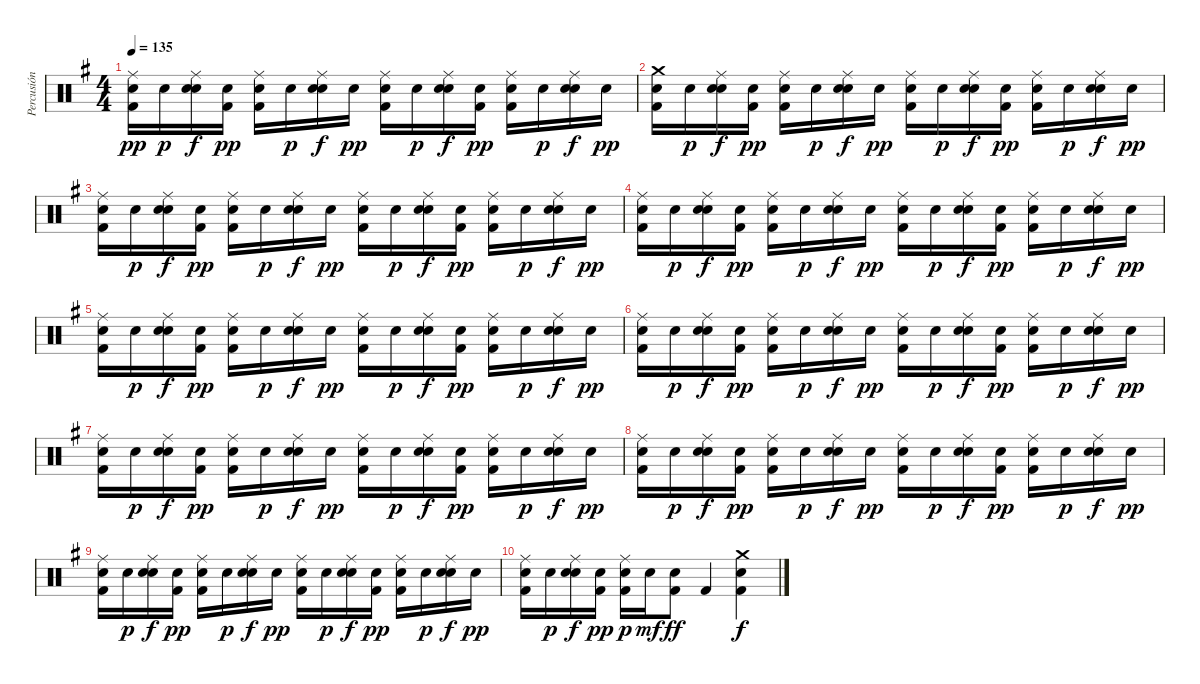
\track ("Percusión" "Percusión") {instrument percussion}
\staff {score}
\articulation defaults
\ts (4 4)
\tempo 135
\clef neutral
\ks g
("Ride (middle)" "Snare (hit) 2" "Kick (hit) 2").16{dy pp} "Snare (hit) 2".16{dy p} ("Ride (middle)" "Hand Clap (hit)" "Snare (hit) 2").16{dy f} ("Snare (hit) 2" "Kick (hit) 2").16{dy pp} ("Ride (middle)" "Snare (hit) 2" "Kick (hit) 2").16 "Snare (hit) 2".16{dy p} ("Ride (middle)" "Hand Clap (hit)" "Snare (hit) 2").16{dy f} "Snare (hit) 2".16{dy pp} ("Ride (middle)" "Snare (hit) 2" "Kick (hit) 2").16 "Snare (hit) 2".16{dy p} ("Ride (middle)" "Hand Clap (hit)" "Snare (hit) 2").16{dy f} ("Snare (hit) 2" "Kick (hit) 2").16{dy pp} ("Ride (middle)" "Snare (hit) 2" "Kick (hit) 2").16 "Snare (hit) 2".16{dy p} ("Ride (middle)" "Hand Clap (hit)" "Snare (hit) 2").16{dy f} "Snare (hit) 2".16{dy pp} |
("Crash medium (hit)" "Snare (hit) 2" "Kick (hit) 2").16 "Snare (hit) 2".16{dy p} ("Ride (middle)" "Hand Clap (hit)" "Snare (hit) 2").16{dy f} ("Snare (hit) 2" "Kick (hit) 2").16{dy pp} ("Ride (middle)" "Snare (hit) 2" "Kick (hit) 2").16 "Snare (hit) 2".16{dy p} ("Ride (middle)" "Hand Clap (hit)" "Snare (hit) 2").16{dy f} "Snare (hit) 2".16{dy pp} ("Ride (middle)" "Snare (hit) 2" "Kick (hit) 2").16 "Snare (hit) 2".16{dy p} ("Ride (middle)" "Hand Clap (hit)" "Snare (hit) 2").16{dy f} ("Snare (hit) 2" "Kick (hit) 2").16{dy pp} ("Ride (middle)" "Snare (hit) 2" "Kick (hit) 2").16 "Snare (hit) 2".16{dy p} ("Ride (middle)" "Hand Clap (hit)" "Snare (hit) 2").16{dy f} "Snare (hit) 2".16{dy pp} |
("Ride (middle)" "Snare (hit) 2" "Kick (hit) 2").16 "Snare (hit) 2".16{dy p} ("Ride (middle)" "Hand Clap (hit)" "Snare (hit) 2").16{dy f} ("Snare (hit) 2" "Kick (hit) 2").16{dy pp} ("Ride (middle)" "Snare (hit) 2" "Kick (hit) 2").16 "Snare (hit) 2".16{dy p} ("Ride (middle)" "Hand Clap (hit)" "Snare (hit) 2").16{dy f} "Snare (hit) 2".16{dy pp} ("Ride (middle)" "Snare (hit) 2" "Kick (hit) 2").16 "Snare (hit) 2".16{dy p} ("Ride (middle)" "Hand Clap (hit)" "Snare (hit) 2").16{dy f} ("Snare (hit) 2" "Kick (hit) 2").16{dy pp} ("Ride (middle)" "Snare (hit) 2" "Kick (hit) 2").16 "Snare (hit) 2".16{dy p} ("Ride (middle)" "Hand Clap (hit)" "Snare (hit) 2").16{dy f} "Snare (hit) 2".16{dy pp} |
("Ride (middle)" "Snare (hit) 2" "Kick (hit) 2").16 "Snare (hit) 2".16{dy p} ("Ride (middle)" "Hand Clap (hit)" "Snare (hit) 2").16{dy f} ("Snare (hit) 2" "Kick (hit) 2").16{dy pp} ("Ride (middle)" "Snare (hit) 2" "Kick (hit) 2").16 "Snare (hit) 2".16{dy p} ("Ride (middle)" "Hand Clap (hit)" "Snare (hit) 2").16{dy f} "Snare (hit) 2".16{dy pp} ("Ride (middle)" "Snare (hit) 2" "Kick (hit) 2").16 "Snare (hit) 2".16{dy p} ("Ride (middle)" "Hand Clap (hit)" "Snare (hit) 2").16{dy f} ("Snare (hit) 2" "Kick (hit) 2").16{dy pp} ("Ride (middle)" "Snare (hit) 2" "Kick (hit) 2").16 "Snare (hit) 2".16{dy p} ("Ride (middle)" "Hand Clap (hit)" "Snare (hit) 2").16{dy f} "Snare (hit) 2".16{dy pp} |
("Ride (middle)" "Snare (hit) 2" "Kick (hit) 2").16 "Snare (hit) 2".16{dy p} ("Ride (middle)" "Hand Clap (hit)" "Snare (hit) 2").16{dy f} ("Snare (hit) 2" "Kick (hit) 2").16{dy pp} ("Ride (middle)" "Snare (hit) 2" "Kick (hit) 2").16 "Snare (hit) 2".16{dy p} ("Ride (middle)" "Hand Clap (hit)" "Snare (hit) 2").16{dy f} "Snare (hit) 2".16{dy pp} ("Ride (middle)" "Snare (hit) 2" "Kick (hit) 2").16 "Snare (hit) 2".16{dy p} ("Ride (middle)" "Hand Clap (hit)" "Snare (hit) 2").16{dy f} ("Snare (hit) 2" "Kick (hit) 2").16{dy pp} ("Ride (middle)" "Snare (hit) 2" "Kick (hit) 2").16 "Snare (hit) 2".16{dy p} ("Ride (middle)" "Hand Clap (hit)" "Snare (hit) 2").16{dy f} "Snare (hit) 2".16{dy pp} |
("Ride (middle)" "Snare (hit) 2" "Kick (hit) 2").16 "Snare (hit) 2".16{dy p} ("Ride (middle)" "Hand Clap (hit)" "Snare (hit) 2").16{dy f} ("Snare (hit) 2" "Kick (hit) 2").16{dy pp} ("Ride (middle)" "Snare (hit) 2" "Kick (hit) 2").16 "Snare (hit) 2".16{dy p} ("Ride (middle)" "Hand Clap (hit)" "Snare (hit) 2").16{dy f} "Snare (hit) 2".16{dy pp} ("Ride (middle)" "Snare (hit) 2" "Kick (hit) 2").16 "Snare (hit) 2".16{dy p} ("Ride (middle)" "Hand Clap (hit)" "Snare (hit) 2").16{dy f} ("Snare (hit) 2" "Kick (hit) 2").16{dy pp} ("Ride (middle)" "Snare (hit) 2" "Kick (hit) 2").16 "Snare (hit) 2".16{dy p} ("Ride (middle)" "Hand Clap (hit)" "Snare (hit) 2").16{dy f} "Snare (hit) 2".16{dy pp} |
("Ride (middle)" "Snare (hit) 2" "Kick (hit) 2").16 "Snare (hit) 2".16{dy p} ("Ride (middle)" "Hand Clap (hit)" "Snare (hit) 2").16{dy f} ("Snare (hit) 2" "Kick (hit) 2").16{dy pp} ("Ride (middle)" "Snare (hit) 2" "Kick (hit) 2").16 "Snare (hit) 2".16{dy p} ("Ride (middle)" "Hand Clap (hit)" "Snare (hit) 2").16{dy f} "Snare (hit) 2".16{dy pp} ("Ride (middle)" "Snare (hit) 2" "Kick (hit) 2").16 "Snare (hit) 2".16{dy p} ("Ride (middle)" "Hand Clap (hit)" "Snare (hit) 2").16{dy f} ("Snare (hit) 2" "Kick (hit) 2").16{dy pp} ("Ride (middle)" "Snare (hit) 2" "Kick (hit) 2").16 "Snare (hit) 2".16{dy p} ("Ride (middle)" "Hand Clap (hit)" "Snare (hit) 2").16{dy f} "Snare (hit) 2".16{dy pp} |
("Ride (middle)" "Snare (hit) 2" "Kick (hit) 2").16 "Snare (hit) 2".16{dy p} ("Ride (middle)" "Hand Clap (hit)" "Snare (hit) 2").16{dy f} ("Snare (hit) 2" "Kick (hit) 2").16{dy pp} ("Ride (middle)" "Snare (hit) 2" "Kick (hit) 2").16 "Snare (hit) 2".16{dy p} ("Ride (middle)" "Hand Clap (hit)" "Snare (hit) 2").16{dy f} "Snare (hit) 2".16{dy pp} ("Ride (middle)" "Snare (hit) 2" "Kick (hit) 2").16 "Snare (hit) 2".16{dy p} ("Ride (middle)" "Hand Clap (hit)" "Snare (hit) 2").16{dy f} ("Snare (hit) 2" "Kick (hit) 2").16{dy pp} ("Ride (middle)" "Snare (hit) 2" "Kick (hit) 2").16 "Snare (hit) 2".16{dy p} ("Ride (middle)" "Hand Clap (hit)" "Snare (hit) 2").16{dy f} "Snare (hit) 2".16{dy pp} |
("Ride (middle)" "Snare (hit) 2" "Kick (hit) 2").16 "Snare (hit) 2".16{dy p} ("Ride (middle)" "Hand Clap (hit)" "Snare (hit) 2").16{dy f} ("Snare (hit) 2" "Kick (hit) 2").16{dy pp} ("Ride (middle)" "Snare (hit) 2" "Kick (hit) 2").16 "Snare (hit) 2".16{dy p} ("Ride (middle)" "Hand Clap (hit)" "Snare (hit) 2").16{dy f} "Snare (hit) 2".16{dy pp} ("Ride (middle)" "Snare (hit) 2" "Kick (hit) 2").16 "Snare (hit) 2".16{dy p} ("Ride (middle)" "Hand Clap (hit)" "Snare (hit) 2").16{dy f} ("Snare (hit) 2" "Kick (hit) 2").16{dy pp} ("Ride (middle)" "Snare (hit) 2" "Kick (hit) 2").16 "Snare (hit) 2".16{dy p} ("Ride (middle)" "Hand Clap (hit)" "Snare (hit) 2").16{dy f} "Snare (hit) 2".16{dy pp} |
("Ride (middle)" "Snare (hit) 2" "Kick (hit) 2").16 "Snare (hit) 2".16{dy p} ("Ride (middle)" "Hand Clap (hit)" "Snare (hit) 2").16{dy f} ("Snare (hit) 2" "Kick (hit) 2").16{dy pp} ("Ride (middle)" "Snare (hit) 2" "Kick (hit) 2").16{dy p} "Snare (hit) 2".16{dy mf} ("Snare (hit) 2" "Kick (hit) 2").8{dy ff} "Kick (hit) 2".4 ("Crash medium (hit)" "Snare (hit) 2" "Kick (hit) 2").4{dy f}
